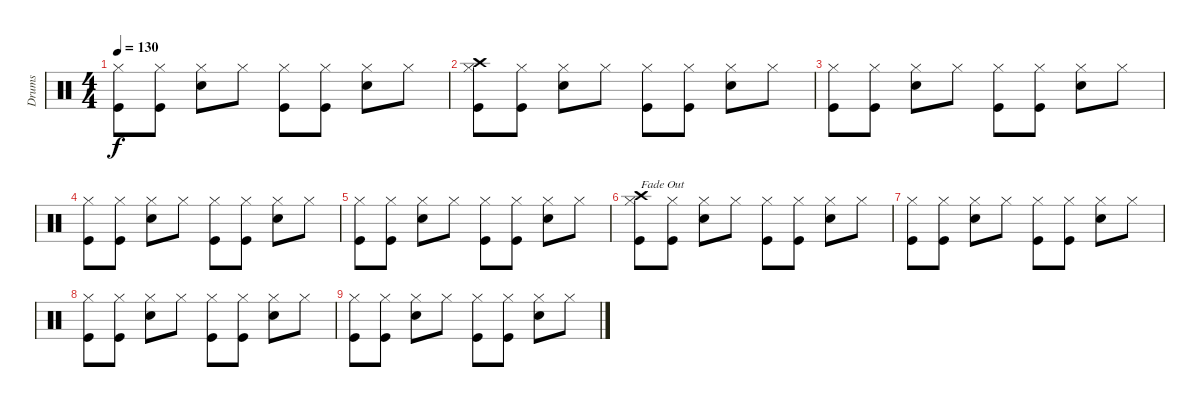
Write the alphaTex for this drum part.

\track ("Drums" "Drums") {instrument percussion}
\staff {score}
\articulation defaults
\ts (4 4)
\tempo 130
\clef neutral
\ks c
("Hi-Hat (closed)" "Kick (hit)").8{dy f} ("Hi-Hat (closed)" "Kick (hit)").8 ("Hi-Hat (closed)" "Snare (hit) 2").8 "Hi-Hat (closed)".8 ("Hi-Hat (closed)" "Kick (hit)").8 ("Hi-Hat (closed)" "Kick (hit)").8 ("Hi-Hat (closed)" "Snare (hit) 2").8 "Hi-Hat (closed)".8 |
("Hi-Hat (closed)" "Kick (hit)" "Crash high (hit)").8 ("Hi-Hat (closed)" "Kick (hit)").8 ("Hi-Hat (closed)" "Snare (hit) 2").8 "Hi-Hat (closed)".8 ("Hi-Hat (closed)" "Kick (hit)").8 ("Hi-Hat (closed)" "Kick (hit)").8 ("Hi-Hat (closed)" "Snare (hit) 2").8 "Hi-Hat (closed)".8 |
("Hi-Hat (closed)" "Kick (hit)").8 ("Hi-Hat (closed)" "Kick (hit)").8 ("Hi-Hat (closed)" "Snare (hit) 2").8 "Hi-Hat (closed)".8 ("Hi-Hat (closed)" "Kick (hit)").8 ("Hi-Hat (closed)" "Kick (hit)").8 ("Hi-Hat (closed)" "Snare (hit) 2").8 "Hi-Hat (closed)".8 |
("Hi-Hat (closed)" "Kick (hit)").8 ("Hi-Hat (closed)" "Kick (hit)").8 ("Hi-Hat (closed)" "Snare (hit) 2").8 "Hi-Hat (closed)".8 ("Hi-Hat (closed)" "Kick (hit)").8 ("Hi-Hat (closed)" "Kick (hit)").8 ("Hi-Hat (closed)" "Snare (hit) 2").8 "Hi-Hat (closed)".8 |
("Hi-Hat (closed)" "Kick (hit)").8 ("Hi-Hat (closed)" "Kick (hit)").8 ("Hi-Hat (closed)" "Snare (hit) 2").8 "Hi-Hat (closed)".8 ("Hi-Hat (closed)" "Kick (hit)").8 ("Hi-Hat (closed)" "Kick (hit)").8 ("Hi-Hat (closed)" "Snare (hit) 2").8 "Hi-Hat (closed)".8 |
("Hi-Hat (closed)" "Kick (hit)" "Crash high (hit)").8{txt "Fade Out"} ("Hi-Hat (closed)" "Kick (hit)").8 ("Hi-Hat (closed)" "Snare (hit) 2").8 "Hi-Hat (closed)".8 ("Hi-Hat (closed)" "Kick (hit)").8 ("Hi-Hat (closed)" "Kick (hit)").8 ("Hi-Hat (closed)" "Snare (hit) 2").8 "Hi-Hat (closed)".8 |
("Hi-Hat (closed)" "Kick (hit)").8 ("Hi-Hat (closed)" "Kick (hit)").8 ("Hi-Hat (closed)" "Snare (hit) 2").8 "Hi-Hat (closed)".8 ("Hi-Hat (closed)" "Kick (hit)").8 ("Hi-Hat (closed)" "Kick (hit)").8 ("Hi-Hat (closed)" "Snare (hit) 2").8 "Hi-Hat (closed)".8 |
("Hi-Hat (closed)" "Kick (hit)").8 ("Hi-Hat (closed)" "Kick (hit)").8 ("Hi-Hat (closed)" "Snare (hit) 2").8 "Hi-Hat (closed)".8 ("Hi-Hat (closed)" "Kick (hit)").8 ("Hi-Hat (closed)" "Kick (hit)").8 ("Hi-Hat (closed)" "Snare (hit) 2").8 "Hi-Hat (closed)".8 |
("Hi-Hat (closed)" "Kick (hit)").8 ("Hi-Hat (closed)" "Kick (hit)").8 ("Hi-Hat (closed)" "Snare (hit) 2").8 "Hi-Hat (closed)".8 ("Hi-Hat (closed)" "Kick (hit)").8 ("Hi-Hat (closed)" "Kick (hit)").8 ("Hi-Hat (closed)" "Snare (hit) 2").8 "Hi-Hat (closed)".8
